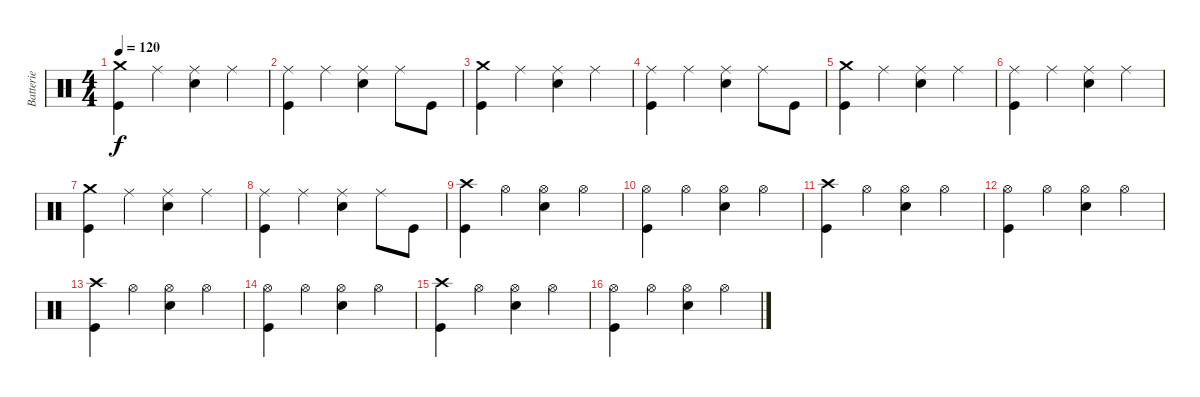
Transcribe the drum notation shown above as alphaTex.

\track ("Batterie" "Batterie") {instrument percussion}
\staff {score}
\articulation defaults
\ts (4 4)
\tempo 120
\clef neutral
\ks c
("Crash medium (hit)" "Kick (hit)").4{dy f} "Ride (middle)".4 ("Ride (middle)" "Electric Snare (hit)").4 "Ride (middle)".4 |
("Ride (middle)" "Kick (hit)").4 "Ride (middle)".4 ("Ride (middle)" "Electric Snare (hit)").4 "Ride (middle)".8 "Kick (hit)".8 |
("Crash medium (hit)" "Kick (hit)").4 "Ride (middle)".4 ("Ride (middle)" "Electric Snare (hit)").4 "Ride (middle)".4 |
("Ride (middle)" "Kick (hit)").4 "Ride (middle)".4 ("Ride (middle)" "Electric Snare (hit)").4 "Ride (middle)".8 "Kick (hit)".8 |
("Crash medium (hit)" "Kick (hit)").4 "Ride (middle)".4 ("Ride (middle)" "Electric Snare (hit)").4 "Ride (middle)".4 |
("Ride (middle)" "Kick (hit)").4 "Ride (middle)".4 ("Ride (middle)" "Electric Snare (hit)").4 "Ride (middle)".4 |
("Crash medium (hit)" "Kick (hit)").4 "Ride (middle)".4 ("Ride (middle)" "Electric Snare (hit)").4 "Ride (middle)".4 |
("Ride (middle)" "Kick (hit)").4 "Ride (middle)".4 ("Ride (middle)" "Electric Snare (hit)").4 "Ride (middle)".8 "Kick (hit)".8 |
("Crash high (hit)" "Kick (hit)").4 "Hi-Hat (open)".4 ("Hi-Hat (open)" "Electric Snare (hit)").4 "Hi-Hat (open)".4 |
("Hi-Hat (open)" "Kick (hit)").4 "Hi-Hat (open)".4 ("Hi-Hat (open)" "Electric Snare (hit)").4 "Hi-Hat (open)".4 |
("Crash high (hit)" "Kick (hit)").4 "Hi-Hat (open)".4 ("Hi-Hat (open)" "Electric Snare (hit)").4 "Hi-Hat (open)".4 |
("Hi-Hat (open)" "Kick (hit)").4 "Hi-Hat (open)".4 ("Hi-Hat (open)" "Electric Snare (hit)").4 "Hi-Hat (open)".4 |
("Crash high (hit)" "Kick (hit)").4 "Hi-Hat (open)".4 ("Hi-Hat (open)" "Electric Snare (hit)").4 "Hi-Hat (open)".4 |
("Hi-Hat (open)" "Kick (hit)").4 "Hi-Hat (open)".4 ("Hi-Hat (open)" "Electric Snare (hit)").4 "Hi-Hat (open)".4 |
("Crash high (hit)" "Kick (hit)").4 "Hi-Hat (open)".4 ("Hi-Hat (open)" "Electric Snare (hit)").4 "Hi-Hat (open)".4 |
("Hi-Hat (open)" "Kick (hit)").4 "Hi-Hat (open)".4 ("Hi-Hat (open)" "Electric Snare (hit)").4 "Hi-Hat (open)".4
